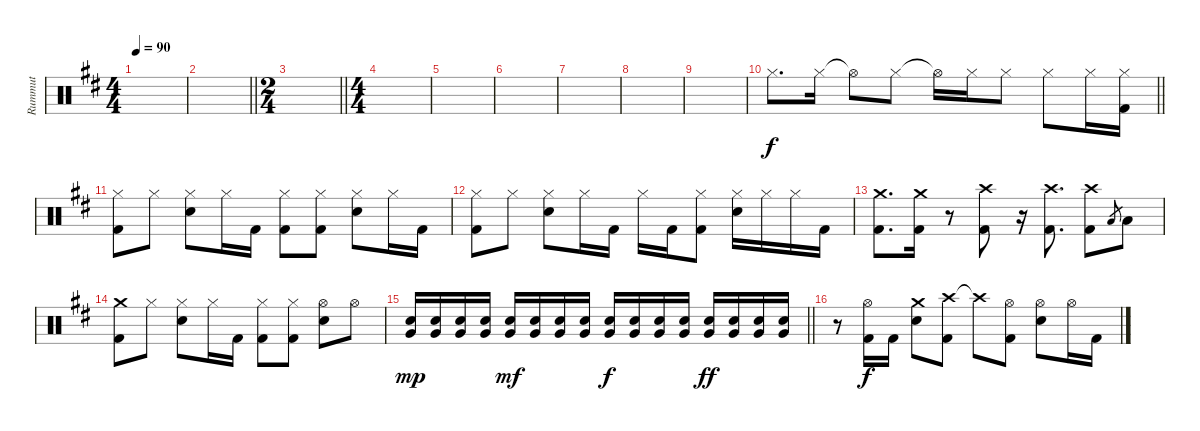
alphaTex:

\track ("Rummut" "Rummut") {instrument percussion}
\staff {score}
\articulation defaults
\ts (4 4)
\tempo 90
\clef neutral
\ks d
|
\barLineRight lightlight
|
\ts (2 4)
\barLineRight lightlight
|
\ts (4 4)
|
|
|
|
|
|
\barLineRight lightlight "Hi-Hat (closed)".8{d} "Hi-Hat (closed)".16 "Hi-Hat (open)"{t}.8 "Hi-Hat (closed)".8 "Hi-Hat (open)"{t}.16 "Hi-Hat (closed)".16 "Hi-Hat (closed)".8 "Hi-Hat (closed)".8 "Hi-Hat (closed)".16
("Hi-Hat (closed)" "Kick (hit) 2").16 |
("Hi-Hat (closed)" "Kick (hit) 2").8 "Hi-Hat (closed)".8 ("Hi-Hat (closed)" "Snare (hit) 2").8 "Hi-Hat (closed)".16 "Kick (hit) 2".16 ("Hi-Hat (closed)" "Kick (hit) 2").8 ("Hi-Hat (closed)" "Kick (hit) 2").8 ("Hi-Hat (closed)" "Snare (hit) 2").8 "Hi-Hat (closed)".16 "Kick (hit) 2".16 |
("Hi-Hat (closed)" "Kick (hit) 2").8 "Hi-Hat (closed)".8 ("Hi-Hat (closed)" "Snare (hit) 2").8 "Hi-Hat (closed)".16 "Kick (hit) 2".16 "Hi-Hat (closed)".16 "Kick (hit) 2".16 ("Hi-Hat (closed)" "Kick (hit) 2").8 ("Hi-Hat (closed)" "Snare (hit) 2").16 "Hi-Hat (closed)".16 "Hi-Hat (closed)".16 "Kick (hit) 2".16 |
("Crash medium (hit)" "Kick (hit) 2").8{d} ("Crash medium (hit)" "Kick (hit) 2").16 r.8 ("Crash high (hit)" "Kick (hit) 2").8 r.16 ("Crash high (hit)" "Kick (hit) 2").8{d} ("Crash high (hit)" "Kick (hit) 2").8 "Low Tom (hit)".8{gr} "Low Tom (hit)".8 |
("Crash medium (hit)" "Kick (hit) 2").8 "Hi-Hat (closed)".8 ("Hi-Hat (closed)" "Snare (hit) 2").8 "Hi-Hat (closed)".16 "Kick (hit) 2".16 ("Hi-Hat (closed)" "Kick (hit) 2").8 ("Hi-Hat (closed)" "Kick (hit) 2").8 ("Hi-Hat (open)" "Snare (hit) 2").8 "Hi-Hat (open)".8 |
\barLineRight lightlight
("Snare (hit) 2" "Very Low Tom (hit)").16{dy mp} ("Snare (hit) 2" "Very Low Tom (hit)").16 ("Snare (hit) 2" "Very Low Tom (hit)").16 ("Snare (hit) 2" "Very Low Tom (hit)").16 ("Snare (hit) 2" "Very Low Tom (hit)").16{dy mf} ("Snare (hit) 2" "Very Low Tom (hit)").16 ("Snare (hit) 2" "Very Low Tom (hit)").16 ("Snare (hit) 2" "Very Low Tom (hit)").16 ("Snare (hit) 2" "Very Low Tom (hit)").16{dy f} ("Snare (hit) 2" "Very Low Tom (hit)").16 ("Snare (hit) 2" "Very Low Tom (hit)").16 ("Snare (hit) 2" "Very Low Tom (hit)").16 ("Snare (hit) 2" "Very Low Tom (hit)").16{dy ff} ("Snare (hit) 2" "Very Low Tom (hit)").16 ("Snare (hit) 2" "Very Low Tom (hit)").16 ("Snare (hit) 2" "Very Low Tom (hit)").16 |
r.8 ("Hi-Hat (open)" "Kick (hit) 2").16{dy f} "Kick (hit) 2".16 ("Crash medium (hit)" "Snare (hit) 2").8 ("Crash high (hit)" "Kick (hit) 2").8 "Crash high (hit)"{t}.8 ("Hi-Hat (open)" "Kick (hit) 2").8 ("Hi-Hat (open)" "Snare (hit) 2").8 "Hi-Hat (open)".16 "Kick (hit) 2".16
